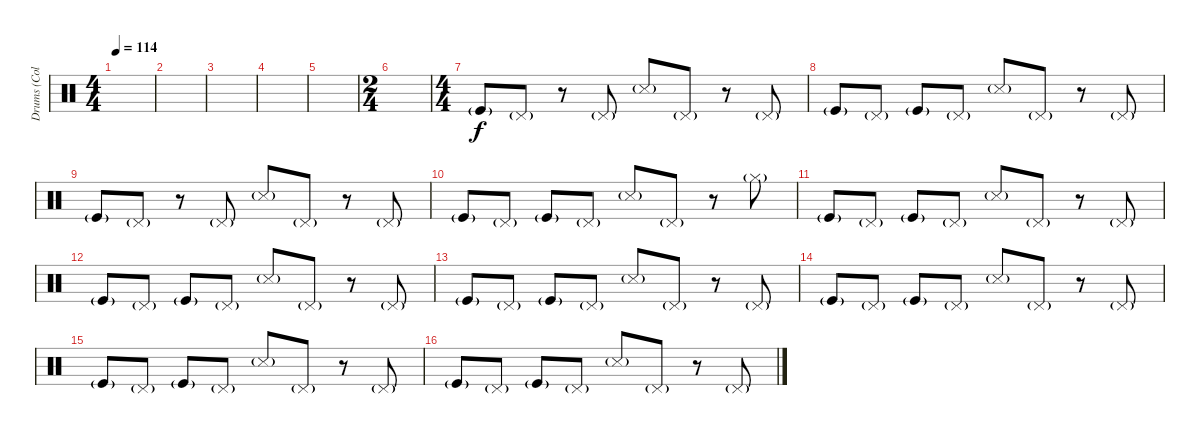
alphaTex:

\track ("Drums (Collins)" "Drums (Col") {instrument percussion}
\staff {score}
\articulation defaults
\ts (4 4)
\tempo 114
\clef neutral
\ks c
|
|
|
|
|
\ts (2 4)
|
\ts (4 4)
"Kick (hit)"{g}.8 "Pedal Hi-Hat (hit)"{g}.8 r.8 "Pedal Hi-Hat (hit)"{g}.8 "Snare (side stick) 3"{g}.8 "Pedal Hi-Hat (hit)"{g}.8 r.8 "Pedal Hi-Hat (hit)"{g}.8 |
"Kick (hit)"{g}.8 "Pedal Hi-Hat (hit)"{g}.8 "Kick (hit)"{g}.8 "Pedal Hi-Hat (hit)"{g}.8 "Snare (side stick) 3"{g}.8 "Pedal Hi-Hat (hit)"{g}.8 r.8 "Pedal Hi-Hat (hit)"{g}.8 |
"Kick (hit)"{g}.8 "Pedal Hi-Hat (hit)"{g}.8 r.8 "Pedal Hi-Hat (hit)"{g}.8 "Snare (side stick) 3"{g}.8 "Pedal Hi-Hat (hit)"{g}.8 r.8 "Pedal Hi-Hat (hit)"{g}.8 |
"Kick (hit)"{g}.8 "Pedal Hi-Hat (hit)"{g}.8 "Kick (hit)"{g}.8 "Pedal Hi-Hat (hit)"{g}.8 "Snare (side stick) 3"{g}.8 "Pedal Hi-Hat (hit)"{g}.8 r.8 "Hi-Hat (closed)"{g}.8 |
"Kick (hit)"{g}.8 "Pedal Hi-Hat (hit)"{g}.8 "Kick (hit)"{g}.8 "Pedal Hi-Hat (hit)"{g}.8 "Snare (side stick) 3"{g}.8 "Pedal Hi-Hat (hit)"{g}.8 r.8 "Pedal Hi-Hat (hit)"{g}.8 |
"Kick (hit)"{g}.8 "Pedal Hi-Hat (hit)"{g}.8 "Kick (hit)"{g}.8 "Pedal Hi-Hat (hit)"{g}.8 "Snare (side stick) 3"{g}.8 "Pedal Hi-Hat (hit)"{g}.8 r.8 "Pedal Hi-Hat (hit)"{g}.8 |
"Kick (hit)"{g}.8 "Pedal Hi-Hat (hit)"{g}.8 "Kick (hit)"{g}.8 "Pedal Hi-Hat (hit)"{g}.8 "Snare (side stick) 3"{g}.8 "Pedal Hi-Hat (hit)"{g}.8 r.8 "Pedal Hi-Hat (hit)"{g}.8 |
"Kick (hit)"{g}.8 "Pedal Hi-Hat (hit)"{g}.8 "Kick (hit)"{g}.8 "Pedal Hi-Hat (hit)"{g}.8 "Snare (side stick) 3"{g}.8 "Pedal Hi-Hat (hit)"{g}.8 r.8 "Pedal Hi-Hat (hit)"{g}.8 |
"Kick (hit)"{g}.8 "Pedal Hi-Hat (hit)"{g}.8 "Kick (hit)"{g}.8 "Pedal Hi-Hat (hit)"{g}.8 "Snare (side stick) 3"{g}.8 "Pedal Hi-Hat (hit)"{g}.8 r.8 "Pedal Hi-Hat (hit)"{g}.8 |
"Kick (hit)"{g}.8 "Pedal Hi-Hat (hit)"{g}.8 "Kick (hit)"{g}.8 "Pedal Hi-Hat (hit)"{g}.8 "Snare (side stick) 3"{g}.8 "Pedal Hi-Hat (hit)"{g}.8 r.8 "Pedal Hi-Hat (hit)"{g}.8
